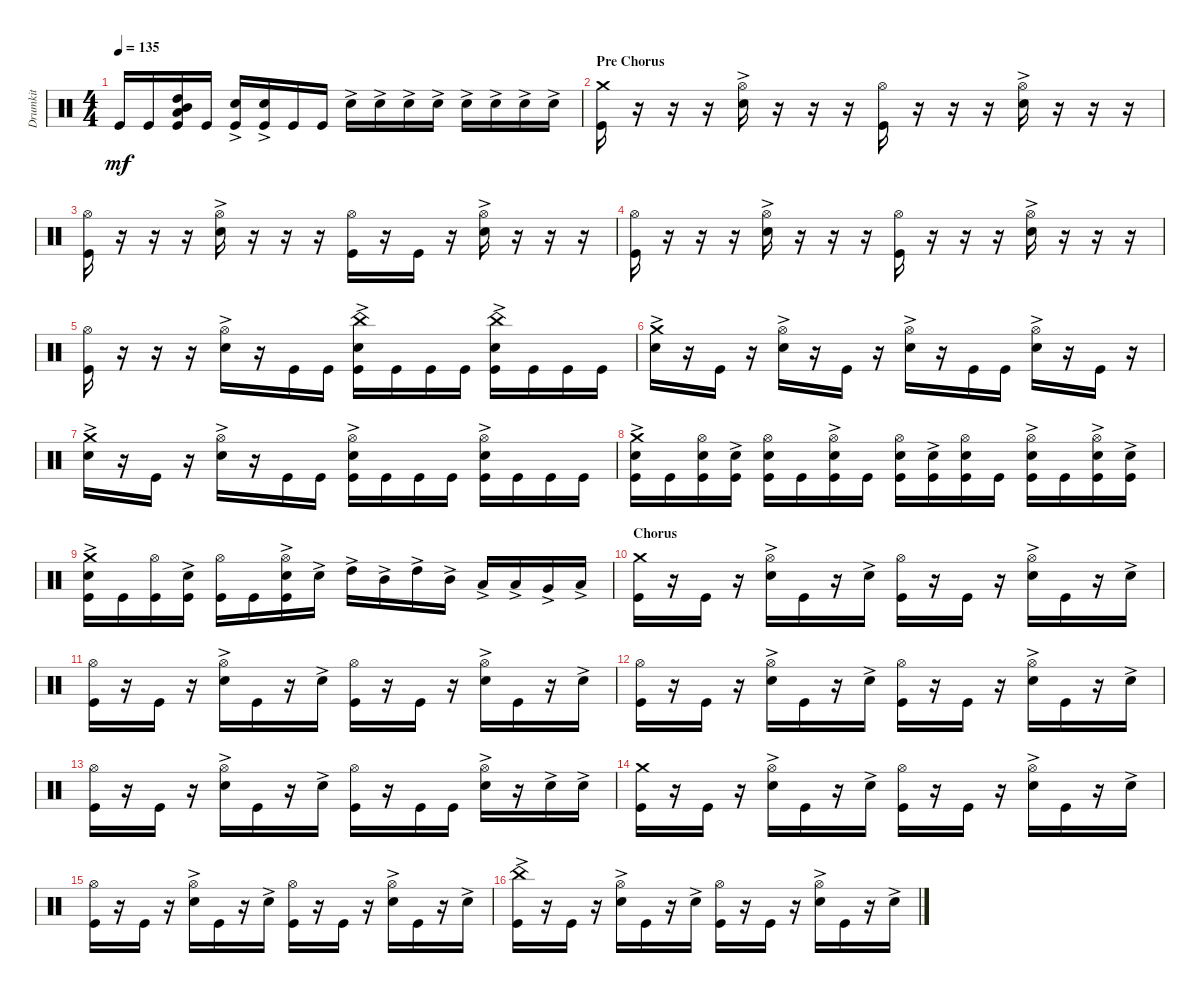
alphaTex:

\track ("Drumkit" "Drumkit") {instrument percussion}
\staff {score}
\articulation defaults
\ts (4 4)
\tempo 135
\clef neutral
\ks c "Kick (hit)".16{dy mf} "Kick (hit)".16
("Kick (hit)" "High Tom (hit)" "Mid Tom (hit)" "Low Tom (hit)").16 "Kick (hit)".16 ("Kick (hit)" "Snare (hit) 2"{ac}).16 ("Kick (hit)" "Snare (hit) 2"{ac}).16 "Kick (hit)".16 "Kick (hit)".16 "Snare (hit) 2"{ac}.16 "Snare (hit) 2"{ac}.16 "Snare (hit) 2"{ac}.16 "Snare (hit) 2"{ac}.16 "Snare (hit) 2"{ac}.16 "Snare (hit) 2"{ac}.16 "Snare (hit) 2"{ac}.16 "Snare (hit) 2"{ac}.16 |
\section ("" "Pre Chorus")
("Crash medium (hit)" "Kick (hit)").16 r.16 r.16 r.16 ("Hi-Hat (open)" "Snare (hit) 2"{ac}).16 r.16 r.16 r.16 ("Hi-Hat (open)" "Kick (hit)").16 r.16 r.16 r.16 ("Hi-Hat (open)" "Snare (hit) 2"{ac}).16 r.16 r.16 r.16 |
("Kick (hit)" "Hi-Hat (open)").16 r.16 r.16 r.16 ("Hi-Hat (open)" "Snare (hit) 2"{ac}).16 r.16 r.16 r.16 ("Hi-Hat (open)" "Kick (hit)").16 r.16 "Kick (hit)".16 r.16 ("Hi-Hat (open)" "Snare (hit) 2"{ac}).16 r.16 r.16 r.16 |
("Kick (hit)" "Hi-Hat (open)").16 r.16 r.16 r.16 ("Hi-Hat (open)" "Snare (hit) 2"{ac}).16 r.16 r.16 r.16 ("Hi-Hat (open)" "Kick (hit)").16 r.16 r.16 r.16 ("Hi-Hat (open)" "Snare (hit) 2"{ac}).16 r.16 r.16 r.16 |
("Kick (hit)" "Hi-Hat (open)").16 r.16 r.16 r.16 ("Hi-Hat (open)" "Snare (hit) 2"{ac}).16 r.16 "Kick (hit)".16 "Kick (hit)".16 ("Snare (hit) 2"{ac} "Kick (hit)" "China (hit)").16 "Kick (hit)".16 "Kick (hit)".16 "Kick (hit)".16 ("Snare (hit) 2"{ac} "Kick (hit)" "China (hit)").16 "Kick (hit)".16 "Kick (hit)".16 "Kick (hit)".16 |
("Crash medium (hit)" "Snare (hit) 2"{ac}).16 r.16 "Kick (hit)".16 r.16 ("Hi-Hat (open)" "Snare (hit) 2"{ac}).16 r.16 "Kick (hit)".16 r.16 ("Hi-Hat (open)" "Snare (hit) 2"{ac}).16 r.16 "Kick (hit)".16 "Kick (hit)".16 ("Hi-Hat (open)" "Snare (hit) 2"{ac}).16 r.16 "Kick (hit)".16 r.16 |
("Crash medium (hit)" "Snare (hit) 2"{ac}).16 r.16 "Kick (hit)".16 r.16 ("Hi-Hat (open)" "Snare (hit) 2"{ac}).16 r.16 "Kick (hit)".16 "Kick (hit)".16 ("Kick (hit)" "Snare (hit) 2"{ac} "Hi-Hat (open)").16 "Kick (hit)".16 "Kick (hit)".16 "Kick (hit)".16 ("Kick (hit)" "Snare (hit) 2"{ac} "Hi-Hat (open)").16 "Kick (hit)".16 "Kick (hit)".16 "Kick (hit)".16 |
("Kick (hit)" "Snare (hit) 2"{ac} "Crash medium (hit)").16 "Kick (hit)".16 ("Kick (hit)" "Hi-Hat (open)" "Snare (hit) 2").16 ("Kick (hit)" "Snare (hit) 2"{ac}).16 ("Kick (hit)" "Hi-Hat (open)" "Snare (hit) 2").16 "Kick (hit)".16 ("Kick (hit)" "Snare (hit) 2"{ac} "Hi-Hat (open)").16 "Kick (hit)".16 ("Kick (hit)" "Hi-Hat (open)" "Snare (hit) 2").16 ("Kick (hit)" "Snare (hit) 2"{ac}).16 ("Kick (hit)" "Hi-Hat (open)" "Snare (hit) 2").16 "Kick (hit)".16 ("Kick (hit)" "Snare (hit) 2"{ac} "Hi-Hat (open)").16 "Kick (hit)".16 ("Kick (hit)" "Snare (hit) 2"{ac} "Hi-Hat (open)").16 ("Kick (hit)" "Snare (hit) 2"{ac}).16 |
("Kick (hit)" "Snare (hit) 2"{ac} "Crash medium (hit)").16 "Kick (hit)".16 ("Kick (hit)" "Hi-Hat (open)").16 ("Kick (hit)" "Snare (hit) 2"{ac}).16 ("Kick (hit)" "Hi-Hat (open)").16 "Kick (hit)".16 ("Kick (hit)" "Snare (hit) 2"{ac} "Hi-Hat (open)").16 "Snare (hit) 2"{ac}.16 "High Tom (hit)"{ac}.16 "Mid Tom (hit)"{ac}.16 "High Tom (hit)"{ac}.16 "Mid Tom (hit)"{ac}.16 "Low Tom (hit)"{ac}.16 "Low Tom (hit)"{ac}.16 "Very Low Tom (hit)"{ac}.16 "Low Floor Tom (hit)"{ac}.16 |
\section ("" "Chorus")
("Kick (hit)" "Crash medium (hit)").16 r.16 "Kick (hit)".16 r.16 ("Snare (hit) 2"{ac} "Hi-Hat (open)").16 "Kick (hit)".16 r.16 "Snare (hit) 2"{ac}.16 ("Kick (hit)" "Hi-Hat (open)").16 r.16 "Kick (hit)".16 r.16 ("Snare (hit) 2"{ac} "Hi-Hat (open)").16 "Kick (hit)".16 r.16 "Snare (hit) 2"{ac}.16 |
("Kick (hit)" "Hi-Hat (open)").16 r.16 "Kick (hit)".16 r.16 ("Snare (hit) 2"{ac} "Hi-Hat (open)").16 "Kick (hit)".16 r.16 "Snare (hit) 2"{ac}.16 ("Kick (hit)" "Hi-Hat (open)").16 r.16 "Kick (hit)".16 r.16 ("Snare (hit) 2"{ac} "Hi-Hat (open)").16 "Kick (hit)".16 r.16 "Snare (hit) 2"{ac}.16 |
("Kick (hit)" "Hi-Hat (open)").16 r.16 "Kick (hit)".16 r.16 ("Snare (hit) 2"{ac} "Hi-Hat (open)").16 "Kick (hit)".16 r.16 "Snare (hit) 2"{ac}.16 ("Kick (hit)" "Hi-Hat (open)").16 r.16 "Kick (hit)".16 r.16 ("Snare (hit) 2"{ac} "Hi-Hat (open)").16 "Kick (hit)".16 r.16 "Snare (hit) 2"{ac}.16 |
("Kick (hit)" "Hi-Hat (open)").16 r.16 "Kick (hit)".16 r.16 ("Snare (hit) 2"{ac} "Hi-Hat (open)").16 "Kick (hit)".16 r.16 "Snare (hit) 2"{ac}.16 ("Kick (hit)" "Hi-Hat (open)").16 r.16 "Kick (hit)".16 "Kick (hit)".16 ("Snare (hit) 2"{ac} "Hi-Hat (open)").16 r.16 "Snare (hit) 2"{ac}.16 "Snare (hit) 2"{ac}.16 |
("Kick (hit)" "Crash medium (hit)").16 r.16 "Kick (hit)".16 r.16 ("Snare (hit) 2"{ac} "Hi-Hat (open)").16 "Kick (hit)".16 r.16 "Snare (hit) 2"{ac}.16 ("Kick (hit)" "Hi-Hat (open)").16 r.16 "Kick (hit)".16 r.16 ("Snare (hit) 2"{ac} "Hi-Hat (open)").16 "Kick (hit)".16 r.16 "Snare (hit) 2"{ac}.16 |
("Kick (hit)" "Hi-Hat (open)").16 r.16 "Kick (hit)".16 r.16 ("Snare (hit) 2"{ac} "Hi-Hat (open)").16 "Kick (hit)".16 r.16 "Snare (hit) 2"{ac}.16 ("Kick (hit)" "Hi-Hat (open)").16 r.16 "Kick (hit)".16 r.16 ("Snare (hit) 2"{ac} "Hi-Hat (open)").16 "Kick (hit)".16 r.16 "Snare (hit) 2"{ac}.16 |
("Kick (hit)" "China (hit)"{ac}).16 r.16 "Kick (hit)".16 r.16 ("Snare (hit) 2"{ac} "Hi-Hat (open)").16 "Kick (hit)".16 r.16 "Snare (hit) 2"{ac}.16 ("Kick (hit)" "Hi-Hat (open)").16 r.16 "Kick (hit)".16 r.16 ("Snare (hit) 2"{ac} "Hi-Hat (open)").16 "Kick (hit)".16 r.16 "Snare (hit) 2"{ac}.16
